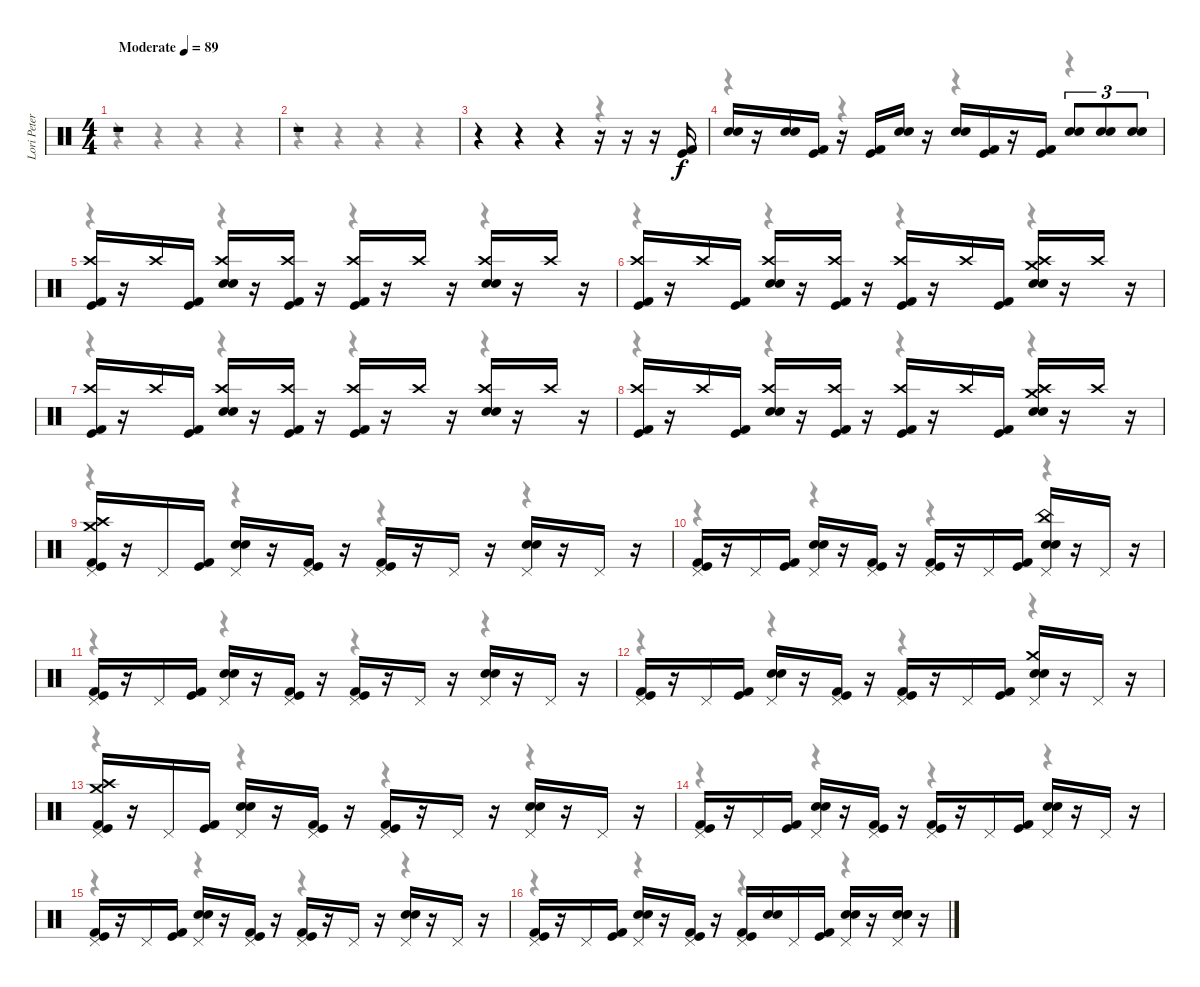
\track ("Lori Peters" "Lori Peter") {instrument percussion}
\staff {score}
\articulation defaults
\voice
\ts (4 4)
\tempo (89 "Moderate")
\clef neutral
\ks c
r.1{dy f} |
r.1 |
r.4 r.4 r.4 r.16 r.16 r.16 ("Kick (hit) 2" "Kick (hit)").16 |
("Snare (hit) 2" "Snare (hit) 2").16 r.16 ("Snare (hit) 2" "Snare (hit) 2").16 ("Kick (hit) 2" "Kick (hit)").16 r.16 ("Kick (hit) 2" "Kick (hit)").16 ("Snare (hit) 2" "Snare (hit) 2").16 r.16 ("Snare (hit) 2" "Snare (hit) 2").16 ("Kick (hit) 2" "Kick (hit)").16 r.16 ("Kick (hit) 2" "Kick (hit)").16 ("Snare (hit) 2" "Snare (hit) 2").8{tu (3 2)} ("Snare (hit) 2" "Snare (hit) 2").8{tu (3 2)} ("Snare (hit) 2" "Snare (hit) 2").8{tu (3 2)} |
("Crash high (hit)" "Kick (hit) 2" "Kick (hit)").16 r.16 "Crash high (hit)".16 ("Kick (hit) 2" "Kick (hit)").16 ("Crash high (hit)" "Snare (hit) 2" "Snare (hit) 2").16 r.16 ("Crash high (hit)" "Kick (hit) 2" "Kick (hit)").16 r.16 ("Crash high (hit)" "Kick (hit) 2" "Kick (hit)").16 r.16 "Crash high (hit)".16 r.16 ("Crash high (hit)" "Snare (hit) 2" "Snare (hit) 2").16 r.16 "Crash high (hit)".16 r.16 |
("Crash high (hit)" "Kick (hit) 2" "Kick (hit)").16 r.16 "Crash high (hit)".16 ("Kick (hit) 2" "Kick (hit)").16 ("Crash high (hit)" "Snare (hit) 2" "Snare (hit) 2").16 r.16 ("Crash high (hit)" "Kick (hit) 2" "Kick (hit)").16 r.16 ("Crash high (hit)" "Kick (hit) 2" "Kick (hit)").16 r.16 "Crash high (hit)".16 ("Kick (hit) 2" "Kick (hit)").16 ("Crash high (hit)" "Crash medium (hit)" "Snare (hit) 2" "Snare (hit) 2").16 r.16 "Crash high (hit)".16 r.16 |
("Crash high (hit)" "Kick (hit) 2" "Kick (hit)").16 r.16 "Crash high (hit)".16 ("Kick (hit) 2" "Kick (hit)").16 ("Crash high (hit)" "Snare (hit) 2" "Snare (hit) 2").16 r.16 ("Crash high (hit)" "Kick (hit) 2" "Kick (hit)").16 r.16 ("Crash high (hit)" "Kick (hit) 2" "Kick (hit)").16 r.16 "Crash high (hit)".16 r.16 ("Crash high (hit)" "Snare (hit) 2" "Snare (hit) 2").16 r.16 "Crash high (hit)".16 r.16 |
("Crash high (hit)" "Kick (hit) 2" "Kick (hit)").16 r.16 "Crash high (hit)".16 ("Kick (hit) 2" "Kick (hit)").16 ("Crash high (hit)" "Snare (hit) 2" "Snare (hit) 2").16 r.16 ("Crash high (hit)" "Kick (hit) 2" "Kick (hit)").16 r.16 ("Crash high (hit)" "Kick (hit) 2" "Kick (hit)").16 r.16 "Crash high (hit)".16 ("Kick (hit) 2" "Kick (hit)").16 ("Crash high (hit)" "Crash medium (hit)" "Snare (hit) 2" "Snare (hit) 2").16 r.16 "Crash high (hit)".16 r.16 |
("Pedal Hi-Hat (hit)" "Crash medium (hit)" "Crash high (hit)" "Kick (hit) 2" "Kick (hit)").16 r.16 "Pedal Hi-Hat (hit)".16 ("Kick (hit) 2" "Kick (hit)").16 ("Pedal Hi-Hat (hit)" "Snare (hit) 2" "Snare (hit) 2").16 r.16 ("Pedal Hi-Hat (hit)" "Kick (hit) 2" "Kick (hit)").16 r.16 ("Pedal Hi-Hat (hit)" "Kick (hit) 2" "Kick (hit)").16 r.16 "Pedal Hi-Hat (hit)".16 r.16 ("Pedal Hi-Hat (hit)" "Snare (hit) 2" "Snare (hit) 2").16 r.16 "Pedal Hi-Hat (hit)".16 r.16 |
("Pedal Hi-Hat (hit)" "Kick (hit) 2" "Kick (hit)").16 r.16 "Pedal Hi-Hat (hit)".16 ("Kick (hit) 2" "Kick (hit)").16 ("Pedal Hi-Hat (hit)" "Snare (hit) 2" "Snare (hit) 2").16 r.16 ("Pedal Hi-Hat (hit)" "Kick (hit) 2" "Kick (hit)").16 r.16 ("Pedal Hi-Hat (hit)" "Kick (hit) 2" "Kick (hit)").16 r.16 "Pedal Hi-Hat (hit)".16 ("Kick (hit) 2" "Kick (hit)").16 ("Pedal Hi-Hat (hit)" "China (hit)" "Snare (hit) 2" "Snare (hit) 2").16 r.16 "Pedal Hi-Hat (hit)".16 r.16 |
("Pedal Hi-Hat (hit)" "Kick (hit) 2" "Kick (hit)").16 r.16 "Pedal Hi-Hat (hit)".16 ("Kick (hit) 2" "Kick (hit)").16 ("Pedal Hi-Hat (hit)" "Snare (hit) 2" "Snare (hit) 2").16 r.16 ("Pedal Hi-Hat (hit)" "Kick (hit) 2" "Kick (hit)").16 r.16 ("Pedal Hi-Hat (hit)" "Kick (hit) 2" "Kick (hit)").16 r.16 "Pedal Hi-Hat (hit)".16 r.16 ("Pedal Hi-Hat (hit)" "Snare (hit) 2" "Snare (hit) 2").16 r.16 "Pedal Hi-Hat (hit)".16 r.16 |
("Pedal Hi-Hat (hit)" "Kick (hit) 2" "Kick (hit)").16 r.16 "Pedal Hi-Hat (hit)".16 ("Kick (hit) 2" "Kick (hit)").16 ("Pedal Hi-Hat (hit)" "Snare (hit) 2" "Snare (hit) 2").16 r.16 ("Pedal Hi-Hat (hit)" "Kick (hit) 2" "Kick (hit)").16 r.16 ("Pedal Hi-Hat (hit)" "Kick (hit) 2" "Kick (hit)").16 r.16 "Pedal Hi-Hat (hit)".16 ("Kick (hit) 2" "Kick (hit)").16 ("Pedal Hi-Hat (hit)" "Crash medium (hit)" "Snare (hit) 2" "Snare (hit) 2").16 r.16 "Pedal Hi-Hat (hit)".16 r.16 |
("Pedal Hi-Hat (hit)" "Crash medium (hit)" "Crash high (hit)" "Kick (hit) 2" "Kick (hit)").16 r.16 "Pedal Hi-Hat (hit)".16 ("Kick (hit) 2" "Kick (hit)").16 ("Pedal Hi-Hat (hit)" "Snare (hit) 2" "Snare (hit) 2").16 r.16 ("Pedal Hi-Hat (hit)" "Kick (hit) 2" "Kick (hit)").16 r.16 ("Pedal Hi-Hat (hit)" "Kick (hit) 2" "Kick (hit)").16 r.16 "Pedal Hi-Hat (hit)".16 r.16 ("Pedal Hi-Hat (hit)" "Snare (hit) 2" "Snare (hit) 2").16 r.16 "Pedal Hi-Hat (hit)".16 r.16 |
("Pedal Hi-Hat (hit)" "Kick (hit) 2" "Kick (hit)").16 r.16 "Pedal Hi-Hat (hit)".16 ("Kick (hit) 2" "Kick (hit)").16 ("Pedal Hi-Hat (hit)" "Snare (hit) 2" "Snare (hit) 2").16 r.16 ("Pedal Hi-Hat (hit)" "Kick (hit) 2" "Kick (hit)").16 r.16 ("Pedal Hi-Hat (hit)" "Kick (hit) 2" "Kick (hit)").16 r.16 "Pedal Hi-Hat (hit)".16 ("Kick (hit) 2" "Kick (hit)").16 ("Pedal Hi-Hat (hit)" "Snare (hit) 2" "Snare (hit) 2").16 r.16 "Pedal Hi-Hat (hit)".16 r.16 |
("Pedal Hi-Hat (hit)" "Kick (hit) 2" "Kick (hit)").16 r.16 "Pedal Hi-Hat (hit)".16 ("Kick (hit) 2" "Kick (hit)").16 ("Pedal Hi-Hat (hit)" "Snare (hit) 2" "Snare (hit) 2").16 r.16 ("Pedal Hi-Hat (hit)" "Kick (hit) 2" "Kick (hit)").16 r.16 ("Pedal Hi-Hat (hit)" "Kick (hit) 2" "Kick (hit)").16 r.16 "Pedal Hi-Hat (hit)".16 r.16 ("Pedal Hi-Hat (hit)" "Snare (hit) 2" "Snare (hit) 2").16 r.16 "Pedal Hi-Hat (hit)".16 r.16 |
("Pedal Hi-Hat (hit)" "Kick (hit) 2" "Kick (hit)").16 r.16 "Pedal Hi-Hat (hit)".16 ("Kick (hit) 2" "Kick (hit)").16 ("Pedal Hi-Hat (hit)" "Snare (hit) 2" "Snare (hit) 2").16 r.16 ("Pedal Hi-Hat (hit)" "Kick (hit) 2" "Kick (hit)").16 r.16 ("Pedal Hi-Hat (hit)" "Kick (hit) 2" "Kick (hit)").16 ("Snare (hit) 2" "Snare (hit) 2").16 "Pedal Hi-Hat (hit)".16 ("Kick (hit) 2" "Kick (hit)").16 ("Pedal Hi-Hat (hit)" "Snare (hit) 2" "Snare (hit) 2").16 r.16 ("Pedal Hi-Hat (hit)" "Snare (hit) 2" "Snare (hit) 2" "Snare (hit) 2").16 r.16
\voice
\clef neutral
\ottava regular
\simile none
\ks c
r.4{dy f} r.4 r.4 r.4 |
r.4 r.4 r.4 r.4 |
r.4 r.4 r.4 r.4 |
r.4 r.4 r.4 r.4 |
r.4 r.4 r.4 r.4 |
r.4 r.4 r.4 r.4 |
r.4 r.4 r.4 r.4 |
r.4 r.4 r.4 r.4 |
r.4 r.4 r.4 r.4 |
r.4 r.4 r.4 r.4 |
r.4 r.4 r.4 r.4 |
r.4 r.4 r.4 r.4 |
r.4 r.4 r.4 r.4 |
r.4 r.4 r.4 r.4 |
r.4 r.4 r.4 r.4 |
r.4 r.4 r.4 r.4
